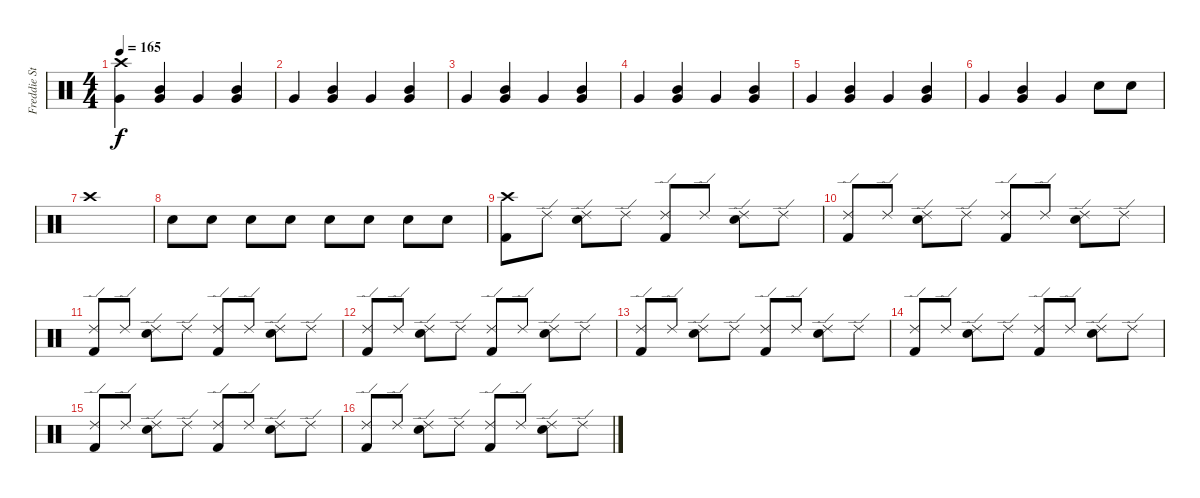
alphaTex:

\track ("Freddie Strauks" "Freddie St") {instrument percussion}
\staff {score}
\articulation defaults
\ts (4 4)
\tempo 165
\clef neutral
\ks c
("Crash high (hit)" "Very Low Tom (hit)").4{dy f volume 16} ("Very Low Tom (hit)" "Mid Tom (hit)").4 "Very Low Tom (hit)".4 ("Very Low Tom (hit)" "Mid Tom (hit)").4 |
"Very Low Tom (hit)".4 ("Very Low Tom (hit)" "Mid Tom (hit)").4 "Very Low Tom (hit)".4 ("Very Low Tom (hit)" "Mid Tom (hit)").4 |
"Very Low Tom (hit)".4 ("Very Low Tom (hit)" "Mid Tom (hit)").4 "Very Low Tom (hit)".4 ("Very Low Tom (hit)" "Mid Tom (hit)").4 |
"Very Low Tom (hit)".4 ("Very Low Tom (hit)" "Mid Tom (hit)").4 "Very Low Tom (hit)".4 ("Very Low Tom (hit)" "Mid Tom (hit)").4 |
"Very Low Tom (hit)".4 ("Very Low Tom (hit)" "Mid Tom (hit)").4 "Very Low Tom (hit)".4 ("Very Low Tom (hit)" "Mid Tom (hit)").4 |
"Very Low Tom (hit)".4 ("Very Low Tom (hit)" "Mid Tom (hit)").4 "Very Low Tom (hit)".4 "Snare (hit) 2".8 "Snare (hit) 2".8 |
"Crash high (hit)".1 |
"Snare (hit) 2".8 "Snare (hit) 2".8 "Snare (hit) 2".8 "Snare (hit) 2".8 "Snare (hit) 2".8 "Snare (hit) 2".8 "Snare (hit) 2".8 "Snare (hit) 2".8 |
("Crash high (hit)" "Kick (hit) 2").8{volume 13} "Ride (edge) 2".8 ("Ride (edge) 2" "Snare (hit) 2").8 "Ride (edge) 2".8 ("Ride (edge) 2" "Kick (hit) 2").8 "Ride (edge) 2".8 ("Ride (edge) 2" "Snare (hit) 2").8 "Ride (edge) 2".8 |
("Ride (edge) 2" "Kick (hit) 2").8 "Ride (edge) 2".8 ("Ride (edge) 2" "Snare (hit) 2").8 "Ride (edge) 2".8 ("Ride (edge) 2" "Kick (hit) 2").8 "Ride (edge) 2".8 ("Ride (edge) 2" "Snare (hit) 2").8 "Ride (edge) 2".8 |
("Ride (edge) 2" "Kick (hit) 2").8 "Ride (edge) 2".8 ("Ride (edge) 2" "Snare (hit) 2").8 "Ride (edge) 2".8 ("Ride (edge) 2" "Kick (hit) 2").8 "Ride (edge) 2".8 ("Ride (edge) 2" "Snare (hit) 2").8 "Ride (edge) 2".8 |
("Ride (edge) 2" "Kick (hit) 2").8 "Ride (edge) 2".8 ("Ride (edge) 2" "Snare (hit) 2").8 "Ride (edge) 2".8 ("Ride (edge) 2" "Kick (hit) 2").8 "Ride (edge) 2".8 ("Ride (edge) 2" "Snare (hit) 2").8 "Ride (edge) 2".8 |
("Ride (edge) 2" "Kick (hit) 2").8 "Ride (edge) 2".8 ("Ride (edge) 2" "Snare (hit) 2").8 "Ride (edge) 2".8 ("Ride (edge) 2" "Kick (hit) 2").8 "Ride (edge) 2".8 ("Ride (edge) 2" "Snare (hit) 2").8 "Ride (edge) 2".8 |
("Ride (edge) 2" "Kick (hit) 2").8 "Ride (edge) 2".8 ("Ride (edge) 2" "Snare (hit) 2").8 "Ride (edge) 2".8 ("Ride (edge) 2" "Kick (hit) 2").8 "Ride (edge) 2".8 ("Ride (edge) 2" "Snare (hit) 2").8 "Ride (edge) 2".8 |
("Ride (edge) 2" "Kick (hit) 2").8 "Ride (edge) 2".8 ("Ride (edge) 2" "Snare (hit) 2").8 "Ride (edge) 2".8 ("Ride (edge) 2" "Kick (hit) 2").8 "Ride (edge) 2".8 ("Ride (edge) 2" "Snare (hit) 2").8 "Ride (edge) 2".8 |
("Ride (edge) 2" "Kick (hit) 2").8 "Ride (edge) 2".8 ("Ride (edge) 2" "Snare (hit) 2").8 "Ride (edge) 2".8 ("Ride (edge) 2" "Kick (hit) 2").8 "Ride (edge) 2".8 ("Ride (edge) 2" "Snare (hit) 2").8 "Ride (edge) 2".8
